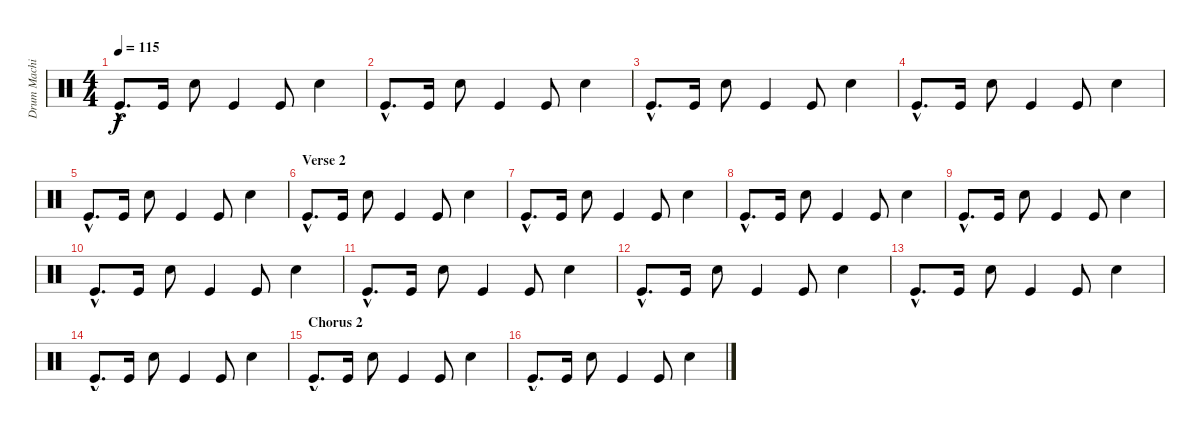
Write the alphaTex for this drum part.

\track ("Drum Machine" "Drum Machi") {instrument percussion}
\staff {score}
\articulation defaults
\ts (4 4)
\tempo 115
\clef neutral
\ks c "Kick (hit)"{hac}.8{d dy f} "Kick (hit)".16 "Snare (hit) 2".8 "Kick (hit)".4 "Kick (hit)".8 "Snare (hit) 2".4
|
"Kick (hit)"{hac}.8{d} "Kick (hit)".16 "Snare (hit) 2".8 "Kick (hit)".4 "Kick (hit)".8 "Snare (hit) 2".4 |
"Kick (hit)"{hac}.8{d} "Kick (hit)".16 "Snare (hit) 2".8 "Kick (hit)".4 "Kick (hit)".8 "Snare (hit) 2".4 |
"Kick (hit)"{hac}.8{d} "Kick (hit)".16 "Snare (hit) 2".8 "Kick (hit)".4 "Kick (hit)".8 "Snare (hit) 2".4 |
"Kick (hit)"{hac}.8{d} "Kick (hit)".16 "Snare (hit) 2".8 "Kick (hit)".4 "Kick (hit)".8 "Snare (hit) 2".4 |
\section ("" "Verse 2")
"Kick (hit)"{hac}.8{d} "Kick (hit)".16 "Snare (hit) 2".8 "Kick (hit)".4 "Kick (hit)".8 "Snare (hit) 2".4 |
"Kick (hit)"{hac}.8{d} "Kick (hit)".16 "Snare (hit) 2".8 "Kick (hit)".4 "Kick (hit)".8 "Snare (hit) 2".4 |
"Kick (hit)"{hac}.8{d} "Kick (hit)".16 "Snare (hit) 2".8 "Kick (hit)".4 "Kick (hit)".8 "Snare (hit) 2".4 |
"Kick (hit)"{hac}.8{d} "Kick (hit)".16 "Snare (hit) 2".8 "Kick (hit)".4 "Kick (hit)".8 "Snare (hit) 2".4 |
"Kick (hit)"{hac}.8{d} "Kick (hit)".16 "Snare (hit) 2".8 "Kick (hit)".4 "Kick (hit)".8 "Snare (hit) 2".4 |
"Kick (hit)"{hac}.8{d} "Kick (hit)".16 "Snare (hit) 2".8 "Kick (hit)".4 "Kick (hit)".8 "Snare (hit) 2".4 |
"Kick (hit)"{hac}.8{d} "Kick (hit)".16 "Snare (hit) 2".8 "Kick (hit)".4 "Kick (hit)".8 "Snare (hit) 2".4 |
"Kick (hit)"{hac}.8{d} "Kick (hit)".16 "Snare (hit) 2".8 "Kick (hit)".4 "Kick (hit)".8 "Snare (hit) 2".4 |
"Kick (hit)"{hac}.8{d} "Kick (hit)".16 "Snare (hit) 2".8 "Kick (hit)".4 "Kick (hit)".8 "Snare (hit) 2".4 |
\section ("" "Chorus 2")
"Kick (hit)"{hac}.8{d} "Kick (hit)".16 "Snare (hit) 2".8 "Kick (hit)".4 "Kick (hit)".8 "Snare (hit) 2".4 |
"Kick (hit)"{hac}.8{d} "Kick (hit)".16 "Snare (hit) 2".8 "Kick (hit)".4 "Kick (hit)".8 "Snare (hit) 2".4
